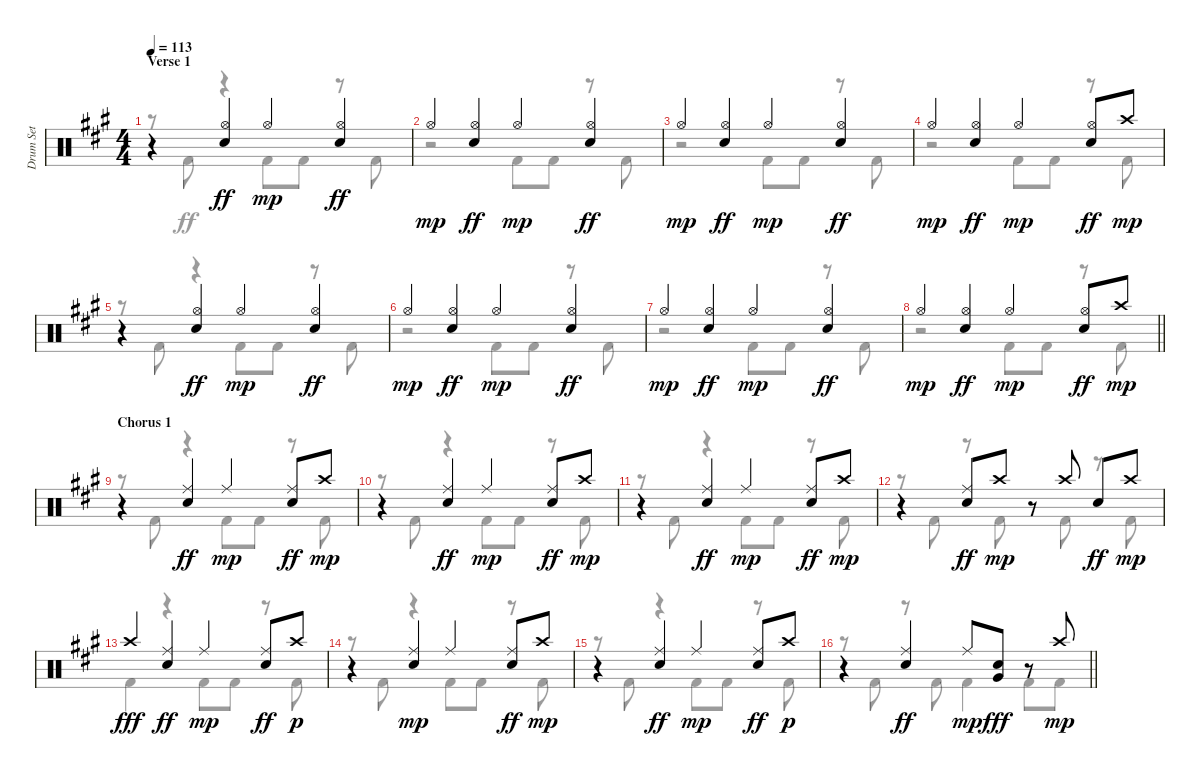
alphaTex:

\track ("Drum Set" "Drum Set") {instrument percussion}
\staff {score}
\articulation defaults
\voice
\ts (4 4)
\section ("" "Verse 1")
\tempo 113
\clef neutral
\ks f#minor
r.4{dy mp} ("Hi-Hat (open)" "Electric Snare (hit)").4{dy ff} "Hi-Hat (open)".4{dy mp} ("Hi-Hat (open)" "Electric Snare (hit)").4{dy ff} |
"Hi-Hat (open)".4{dy mp} ("Hi-Hat (open)" "Electric Snare (hit)").4{dy ff} "Hi-Hat (open)".4{dy mp} ("Hi-Hat (open)" "Electric Snare (hit)").4{dy ff} |
"Hi-Hat (open)".4{dy mp} ("Hi-Hat (open)" "Electric Snare (hit)").4{dy ff} "Hi-Hat (open)".4{dy mp} ("Hi-Hat (open)" "Electric Snare (hit)").4{dy ff} |
"Hi-Hat (open)".4{dy mp} ("Hi-Hat (open)" "Electric Snare (hit)").4{dy ff} "Hi-Hat (open)".4{dy mp} ("Hi-Hat (open)" "Electric Snare (hit)").8{dy ff} "Crash high (hit)".8{dy mp} |
r.4 ("Hi-Hat (open)" "Electric Snare (hit)").4{dy ff} "Hi-Hat (open)".4{dy mp} ("Hi-Hat (open)" "Electric Snare (hit)").4{dy ff} |
"Hi-Hat (open)".4{dy mp} ("Hi-Hat (open)" "Electric Snare (hit)").4{dy ff} "Hi-Hat (open)".4{dy mp} ("Hi-Hat (open)" "Electric Snare (hit)").4{dy ff} |
"Hi-Hat (open)".4{dy mp} ("Hi-Hat (open)" "Electric Snare (hit)").4{dy ff} "Hi-Hat (open)".4{dy mp} ("Hi-Hat (open)" "Electric Snare (hit)").4{dy ff} |
\barLineRight lightlight "Hi-Hat (open)".4{dy mp}
("Hi-Hat (open)" "Electric Snare (hit)").4{dy ff} "Hi-Hat (open)".4{dy mp} ("Hi-Hat (open)" "Electric Snare (hit)").8{dy ff} "Crash high (hit)".8{dy mp} |
\section ("" "Chorus 1")
r.4 ("Ride (middle)" "Electric Snare (hit)").4{dy ff} "Ride (middle)".4{dy mp} ("Ride (middle)" "Electric Snare (hit)").8{dy ff} "Crash high (hit)".8{dy mp} |
r.4 ("Ride (middle)" "Electric Snare (hit)").4{dy ff} "Ride (middle)".4{dy mp} ("Ride (middle)" "Electric Snare (hit)").8{dy ff} "Crash high (hit)".8{dy mp} |
r.4 ("Ride (middle)" "Electric Snare (hit)").4{dy ff} "Ride (middle)".4{dy mp} ("Ride (middle)" "Electric Snare (hit)").8{dy ff} "Crash high (hit)".8{dy mp} |
r.4 ("Ride (middle)" "Electric Snare (hit)").8{dy ff} "Crash high (hit)".8{dy mp} r.8 "Crash high (hit)".8 "Electric Snare (hit)".8{dy ff} "Crash high (hit)".8{dy mp} |
"Crash high (hit)".4{dy fff} ("Ride (middle)" "Electric Snare (hit)").4{dy ff} "Ride (middle)".4{dy mp} ("Ride (middle)" "Electric Snare (hit)").8{dy ff} "Crash high (hit)".8{dy p} |
r.4 ("Electric Snare (hit)" "Ride (middle)").4{dy mp} "Ride (middle)".4 ("Ride (middle)" "Electric Snare (hit)").8{dy ff} "Crash high (hit)".8{dy mp} |
r.4 ("Ride (middle)" "Electric Snare (hit)").4{dy ff} "Ride (middle)".4{dy mp} ("Ride (middle)" "Electric Snare (hit)").8{dy ff} "Crash high (hit)".8{dy p} |
\barLineRight lightlight
r.4 ("Ride (middle)" "Electric Snare (hit)").4{dy ff} "Ride (middle)".8{dy mp} ("Electric Snare (hit)" "Very Low Tom (hit)").8{dy fff} r.8 "Crash high (hit)".8{dy mp}
\voice
\clef neutral
\ottava regular
\simile none
\ks f#minor
r.8{dy ff} "Kick (hit) 2".8 r.4 "Kick (hit) 2".8 "Kick (hit) 2".8 r.8 "Kick (hit) 2".8 |
r.2 "Kick (hit) 2".8 "Kick (hit) 2".8 r.8 "Kick (hit) 2".8 |
r.2 "Kick (hit) 2".8 "Kick (hit) 2".8 r.8 "Kick (hit) 2".8 |
r.2 "Kick (hit) 2".8 "Kick (hit) 2".8 r.8 "Kick (hit) 2".8 |
r.8 "Kick (hit) 2".8 r.4 "Kick (hit) 2".8 "Kick (hit) 2".8 r.8 "Kick (hit) 2".8 |
r.2 "Kick (hit) 2".8 "Kick (hit) 2".8 r.8 "Kick (hit) 2".8 |
r.2 "Kick (hit) 2".8 "Kick (hit) 2".8 r.8 "Kick (hit) 2".8 |
\barLineRight lightlight
r.2 "Kick (hit) 2".8 "Kick (hit) 2".8 r.8 "Kick (hit) 2".8 |
r.8 "Kick (hit) 2".8 r.4 "Kick (hit) 2".8 "Kick (hit) 2".8 r.8 "Kick (hit) 2".8 |
r.8 "Kick (hit) 2".8 r.4 "Kick (hit) 2".8 "Kick (hit) 2".8 r.8 "Kick (hit) 2".8 |
r.8 "Kick (hit) 2".8 r.4 "Kick (hit) 2".8 "Kick (hit) 2".8 r.8 "Kick (hit) 2".8 |
r.8 "Kick (hit) 2".8 r.8 "Kick (hit) 2".8 r.8 "Kick (hit) 2".8 r.8 "Kick (hit) 2".8 |
"Kick (hit) 2".4 r.4 "Kick (hit) 2".8 "Kick (hit) 2".8 r.8 "Kick (hit) 2".8 |
r.8 "Kick (hit) 2".8 r.4 "Kick (hit) 2".8 "Kick (hit) 2".8 r.8 "Kick (hit) 2".8 |
r.8 "Kick (hit) 2".8 r.4 "Kick (hit) 2".8 "Kick (hit) 2".8 r.8 "Kick (hit) 2".8 |
\barLineRight lightlight
r.8 "Kick (hit) 2".8 r.8 "Kick (hit) 2".8 "Kick (hit) 2".4 "Kick (hit) 2".8 "Kick (hit) 2".8
